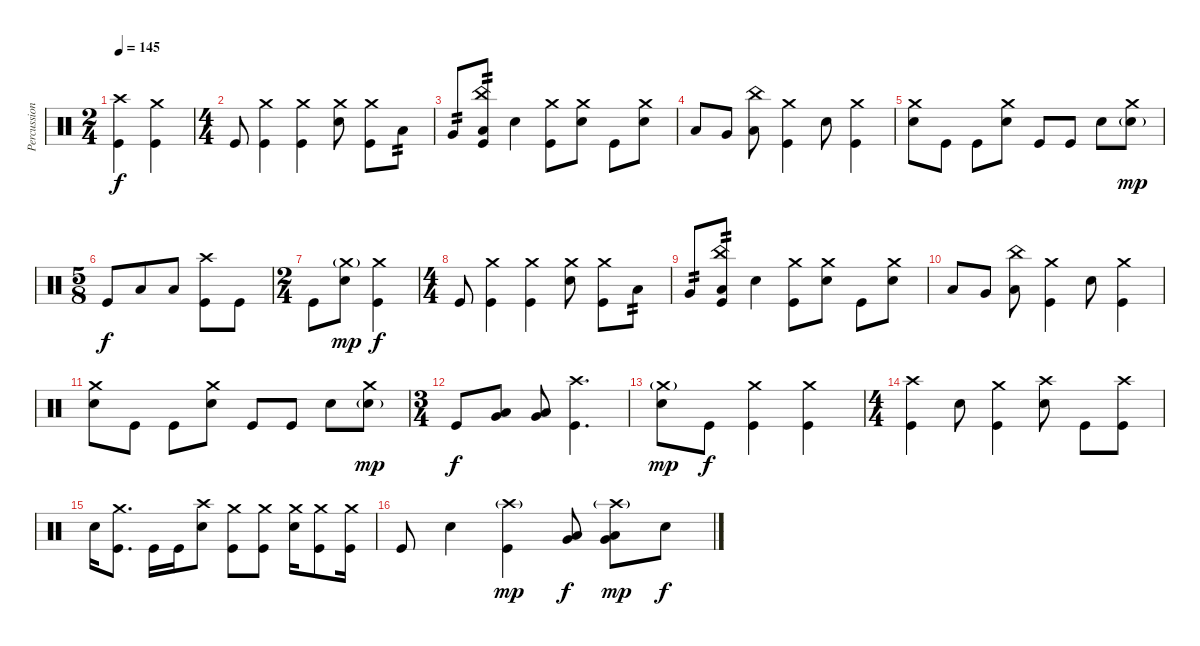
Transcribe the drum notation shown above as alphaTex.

\track ("Percussion" "Percussion") {instrument percussion}
\staff {score}
\articulation defaults
\ts (2 4)
\tempo 145
\clef neutral
\ks c
("Crash high (hit)" "Kick (hit)").4{dy f} ("Crash medium (hit)" "Kick (hit)").4 |
\ts (4 4)
"Kick (hit)".8 ("Crash medium (hit)" "Kick (hit)").4 ("Crash medium (hit)" "Kick (hit)").4 ("Crash medium (hit)" "Snare (hit) 2").8 ("Crash medium (hit)" "Kick (hit)").8 "Low Tom (hit)".8{tp 2} |
"Very Low Tom (hit)".8{tp 2} ("China (hit)" "Low Floor Tom (hit)" "Kick (hit)").8{tp 2} "Snare (hit) 2".4 ("Crash medium (hit)" "Kick (hit)").8 ("Crash medium (hit)" "Snare (hit) 2").8 "Kick (hit)".8 ("Crash medium (hit)" "Snare (hit) 2").8 |
"Low Tom (hit)".8 "Very Low Tom (hit)".8 ("China (hit)" "Low Floor Tom (hit)").8 ("Crash medium (hit)" "Kick (hit)").4 "Snare (hit) 2".8 ("Crash medium (hit)" "Kick (hit)").4 |
("Crash medium (hit)" "Snare (hit) 2").8 "Kick (hit)".8 "Kick (hit)".8 ("Crash medium (hit)" "Snare (hit) 2").8 "Kick (hit)".8 "Kick (hit)".8 "Snare (hit) 2".8 ("Crash medium (hit)" "Snare (hit) 2"{g}).8{dy mp} |
\ts (5 8)
"Kick (hit)".8{dy f} "Low Tom (hit)".8 "Low Floor Tom (hit)".8 ("Crash high (hit)" "Kick (hit)").8 "Kick (hit)".8 |
\ts (2 4)
"Kick (hit)".8 ("Crash medium (hit)"{g} "Snare (hit) 2").8{dy mp} ("Crash medium (hit)" "Kick (hit)").4{dy f} |
\ts (4 4)
"Kick (hit)".8 ("Crash medium (hit)" "Kick (hit)").4 ("Crash medium (hit)" "Kick (hit)").4 ("Crash medium (hit)" "Snare (hit) 2").8 ("Crash medium (hit)" "Kick (hit)").8 "Low Tom (hit)".8{tp 2} |
"Very Low Tom (hit)".8{tp 2} ("China (hit)" "Low Floor Tom (hit)" "Kick (hit)").8{tp 2} "Snare (hit) 2".4 ("Crash medium (hit)" "Kick (hit)").8 ("Crash medium (hit)" "Snare (hit) 2").8 "Kick (hit)".8 ("Crash medium (hit)" "Snare (hit) 2").8 |
"Low Tom (hit)".8 "Very Low Tom (hit)".8 ("China (hit)" "Low Floor Tom (hit)").8 ("Crash medium (hit)" "Kick (hit)").4 "Snare (hit) 2".8 ("Crash medium (hit)" "Kick (hit)").4 |
("Crash medium (hit)" "Snare (hit) 2").8 "Kick (hit)".8 "Kick (hit)".8 ("Crash medium (hit)" "Snare (hit) 2").8 "Kick (hit)".8 "Kick (hit)".8 "Snare (hit) 2".8 ("Crash medium (hit)" "Snare (hit) 2"{g}).8{dy mp} |
\ts (3 4)
"Kick (hit)".8{dy f} ("Low Tom (hit)" "Very Low Tom (hit)").8 ("Low Tom (hit)" "Very Low Tom (hit)").8 ("Crash high (hit)" "Kick (hit)").4{d} |
("Crash medium (hit)"{g} "Snare (hit) 2").8{dy mp} "Kick (hit)".8{dy f} ("Crash medium (hit)" "Kick (hit)").4 ("Crash medium (hit)" "Kick (hit)").4 |
\ts (4 4)
("Crash high (hit)" "Kick (hit)").4 "Snare (hit) 2".8 ("Crash medium (hit)" "Kick (hit)").4 ("Crash high (hit)" "Snare (hit) 2").8 "Kick (hit)".8 ("Crash high (hit)" "Kick (hit)").8 |
"Snare (hit) 2".16 ("Crash medium (hit)" "Kick (hit)").8{d} "Kick (hit)".16 "Kick (hit)".16 ("Crash high (hit)" "Snare (hit) 2").8 ("Crash medium (hit)" "Kick (hit)").8 ("Crash medium (hit)" "Kick (hit)").8 ("Crash medium (hit)" "Snare (hit) 2").16 ("Crash medium (hit)" "Kick (hit)").8 ("Crash medium (hit)" "Kick (hit)").16 |
"Kick (hit)".8 "Snare (hit) 2".4 ("Crash high (hit)"{g} "Kick (hit)").4{dy mp} ("Very Low Tom (hit)" "Low Floor Tom (hit)").8{dy f} ("Crash high (hit)"{g} "Very Low Tom (hit)" "Low Floor Tom (hit)").8{dy mp} "Snare (hit) 2".8{dy f}
